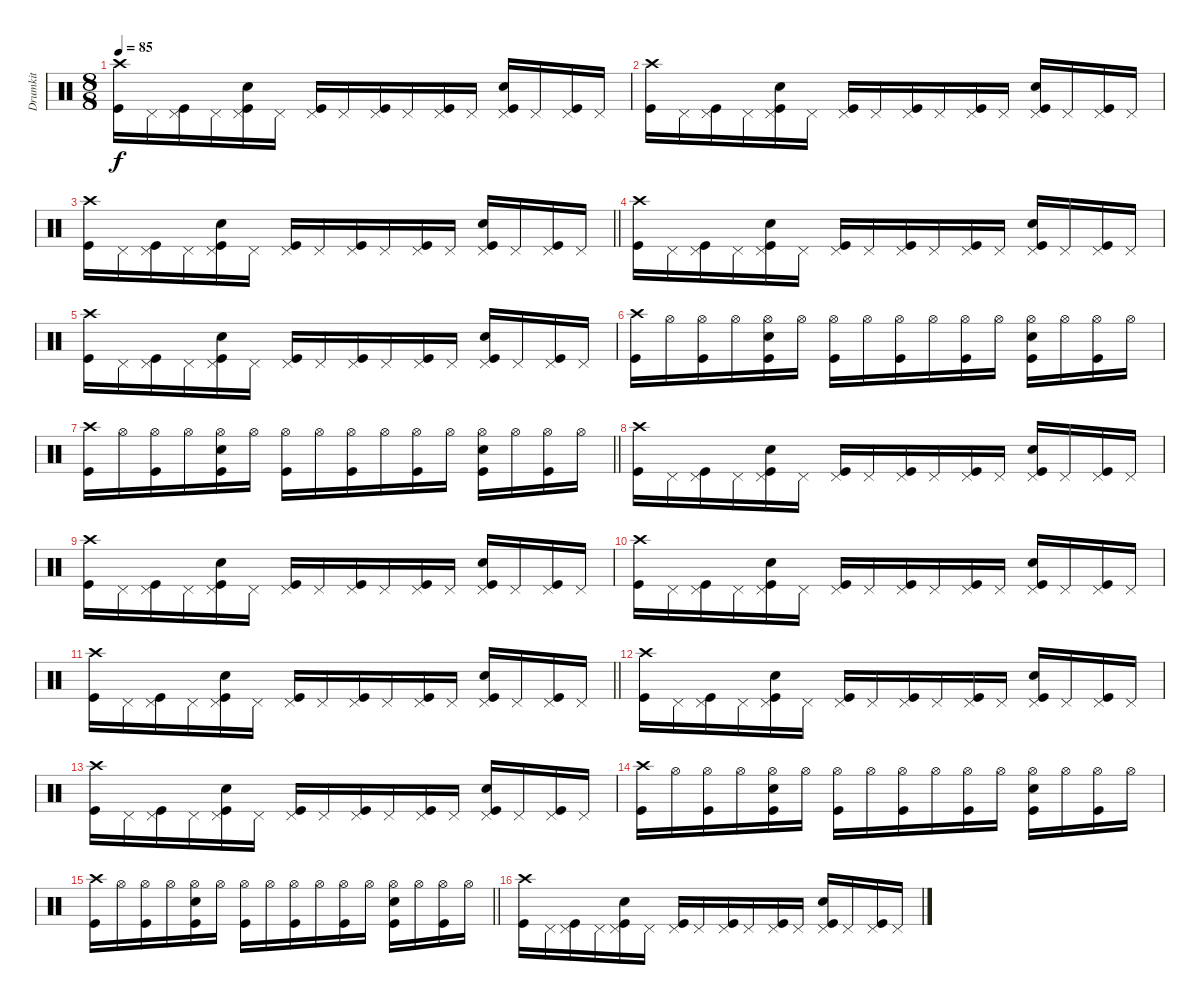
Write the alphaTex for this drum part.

\track ("Drumkit" "Drumkit") {instrument percussion}
\staff {score}
\articulation defaults
\ts (8 8)
\tempo 85
\clef neutral
\ks c
("Kick (hit)" "Crash high (hit)").16{dy f} "Pedal Hi-Hat (hit)".16 ("Kick (hit)" "Pedal Hi-Hat (hit)").16 "Pedal Hi-Hat (hit)".16 ("Kick (hit)" "Snare (hit) 2" "Pedal Hi-Hat (hit)").16 "Pedal Hi-Hat (hit)".16 ("Kick (hit)" "Pedal Hi-Hat (hit)").16 "Pedal Hi-Hat (hit)".16 ("Kick (hit)" "Pedal Hi-Hat (hit)").16 "Pedal Hi-Hat (hit)".16 ("Kick (hit)" "Pedal Hi-Hat (hit)").16 "Pedal Hi-Hat (hit)".16 ("Kick (hit)" "Snare (hit) 2" "Pedal Hi-Hat (hit)").16 "Pedal Hi-Hat (hit)".16 ("Kick (hit)" "Pedal Hi-Hat (hit)").16 "Pedal Hi-Hat (hit)".16 |
("Kick (hit)" "Crash high (hit)").16 "Pedal Hi-Hat (hit)".16 ("Kick (hit)" "Pedal Hi-Hat (hit)").16 "Pedal Hi-Hat (hit)".16 ("Kick (hit)" "Snare (hit) 2" "Pedal Hi-Hat (hit)").16 "Pedal Hi-Hat (hit)".16 ("Kick (hit)" "Pedal Hi-Hat (hit)").16 "Pedal Hi-Hat (hit)".16 ("Kick (hit)" "Pedal Hi-Hat (hit)").16 "Pedal Hi-Hat (hit)".16 ("Kick (hit)" "Pedal Hi-Hat (hit)").16 "Pedal Hi-Hat (hit)".16 ("Kick (hit)" "Snare (hit) 2" "Pedal Hi-Hat (hit)").16 "Pedal Hi-Hat (hit)".16 ("Kick (hit)" "Pedal Hi-Hat (hit)").16 "Pedal Hi-Hat (hit)".16 |
\barLineRight lightlight
("Kick (hit)" "Crash high (hit)").16 "Pedal Hi-Hat (hit)".16 ("Kick (hit)" "Pedal Hi-Hat (hit)").16 "Pedal Hi-Hat (hit)".16 ("Kick (hit)" "Snare (hit) 2" "Pedal Hi-Hat (hit)").16 "Pedal Hi-Hat (hit)".16 ("Kick (hit)" "Pedal Hi-Hat (hit)").16 "Pedal Hi-Hat (hit)".16 ("Kick (hit)" "Pedal Hi-Hat (hit)").16 "Pedal Hi-Hat (hit)".16 ("Kick (hit)" "Pedal Hi-Hat (hit)").16 "Pedal Hi-Hat (hit)".16 ("Kick (hit)" "Snare (hit) 2" "Pedal Hi-Hat (hit)").16 "Pedal Hi-Hat (hit)".16 ("Kick (hit)" "Pedal Hi-Hat (hit)").16 "Pedal Hi-Hat (hit)".16 |
("Kick (hit)" "Crash high (hit)").16 "Pedal Hi-Hat (hit)".16 ("Kick (hit)" "Pedal Hi-Hat (hit)").16 "Pedal Hi-Hat (hit)".16 ("Kick (hit)" "Snare (hit) 2" "Pedal Hi-Hat (hit)").16 "Pedal Hi-Hat (hit)".16 ("Kick (hit)" "Pedal Hi-Hat (hit)").16 "Pedal Hi-Hat (hit)".16 ("Kick (hit)" "Pedal Hi-Hat (hit)").16 "Pedal Hi-Hat (hit)".16 ("Kick (hit)" "Pedal Hi-Hat (hit)").16 "Pedal Hi-Hat (hit)".16 ("Kick (hit)" "Snare (hit) 2" "Pedal Hi-Hat (hit)").16 "Pedal Hi-Hat (hit)".16 ("Kick (hit)" "Pedal Hi-Hat (hit)").16 "Pedal Hi-Hat (hit)".16 |
("Kick (hit)" "Crash high (hit)").16 "Pedal Hi-Hat (hit)".16 ("Kick (hit)" "Pedal Hi-Hat (hit)").16 "Pedal Hi-Hat (hit)".16 ("Kick (hit)" "Snare (hit) 2" "Pedal Hi-Hat (hit)").16 "Pedal Hi-Hat (hit)".16 ("Kick (hit)" "Pedal Hi-Hat (hit)").16 "Pedal Hi-Hat (hit)".16 ("Kick (hit)" "Pedal Hi-Hat (hit)").16 "Pedal Hi-Hat (hit)".16 ("Kick (hit)" "Pedal Hi-Hat (hit)").16 "Pedal Hi-Hat (hit)".16 ("Kick (hit)" "Snare (hit) 2" "Pedal Hi-Hat (hit)").16 "Pedal Hi-Hat (hit)".16 ("Kick (hit)" "Pedal Hi-Hat (hit)").16 "Pedal Hi-Hat (hit)".16 |
("Kick (hit)" "Crash high (hit)").16 "Hi-Hat (open)".16 ("Kick (hit)" "Hi-Hat (open)").16 "Hi-Hat (open)".16 ("Kick (hit)" "Snare (hit) 2" "Hi-Hat (open)").16 "Hi-Hat (open)".16 ("Kick (hit)" "Hi-Hat (open)").16 "Hi-Hat (open)".16 ("Kick (hit)" "Hi-Hat (open)").16 "Hi-Hat (open)".16 ("Kick (hit)" "Hi-Hat (open)").16 "Hi-Hat (open)".16 ("Kick (hit)" "Snare (hit) 2" "Hi-Hat (open)").16 "Hi-Hat (open)".16 ("Kick (hit)" "Hi-Hat (open)").16 "Hi-Hat (open)".16 |
\barLineRight lightlight
("Kick (hit)" "Crash high (hit)").16 "Hi-Hat (open)".16 ("Kick (hit)" "Hi-Hat (open)").16 "Hi-Hat (open)".16 ("Kick (hit)" "Snare (hit) 2" "Hi-Hat (open)").16 "Hi-Hat (open)".16 ("Kick (hit)" "Hi-Hat (open)").16 "Hi-Hat (open)".16 ("Kick (hit)" "Hi-Hat (open)").16 "Hi-Hat (open)".16 ("Kick (hit)" "Hi-Hat (open)").16 "Hi-Hat (open)".16 ("Kick (hit)" "Snare (hit) 2" "Hi-Hat (open)").16 "Hi-Hat (open)".16 ("Kick (hit)" "Hi-Hat (open)").16 "Hi-Hat (open)".16 |
("Kick (hit)" "Crash high (hit)").16 "Pedal Hi-Hat (hit)".16 ("Kick (hit)" "Pedal Hi-Hat (hit)").16 "Pedal Hi-Hat (hit)".16 ("Kick (hit)" "Snare (hit) 2" "Pedal Hi-Hat (hit)").16 "Pedal Hi-Hat (hit)".16 ("Kick (hit)" "Pedal Hi-Hat (hit)").16 "Pedal Hi-Hat (hit)".16 ("Kick (hit)" "Pedal Hi-Hat (hit)").16 "Pedal Hi-Hat (hit)".16 ("Kick (hit)" "Pedal Hi-Hat (hit)").16 "Pedal Hi-Hat (hit)".16 ("Kick (hit)" "Snare (hit) 2" "Pedal Hi-Hat (hit)").16 "Pedal Hi-Hat (hit)".16 ("Kick (hit)" "Pedal Hi-Hat (hit)").16 "Pedal Hi-Hat (hit)".16 |
("Kick (hit)" "Crash high (hit)").16 "Pedal Hi-Hat (hit)".16 ("Kick (hit)" "Pedal Hi-Hat (hit)").16 "Pedal Hi-Hat (hit)".16 ("Kick (hit)" "Snare (hit) 2" "Pedal Hi-Hat (hit)").16 "Pedal Hi-Hat (hit)".16 ("Kick (hit)" "Pedal Hi-Hat (hit)").16 "Pedal Hi-Hat (hit)".16 ("Kick (hit)" "Pedal Hi-Hat (hit)").16 "Pedal Hi-Hat (hit)".16 ("Kick (hit)" "Pedal Hi-Hat (hit)").16 "Pedal Hi-Hat (hit)".16 ("Kick (hit)" "Snare (hit) 2" "Pedal Hi-Hat (hit)").16 "Pedal Hi-Hat (hit)".16 ("Kick (hit)" "Pedal Hi-Hat (hit)").16 "Pedal Hi-Hat (hit)".16 |
("Kick (hit)" "Crash high (hit)").16 "Pedal Hi-Hat (hit)".16 ("Kick (hit)" "Pedal Hi-Hat (hit)").16 "Pedal Hi-Hat (hit)".16 ("Kick (hit)" "Snare (hit) 2" "Pedal Hi-Hat (hit)").16 "Pedal Hi-Hat (hit)".16 ("Kick (hit)" "Pedal Hi-Hat (hit)").16 "Pedal Hi-Hat (hit)".16 ("Kick (hit)" "Pedal Hi-Hat (hit)").16 "Pedal Hi-Hat (hit)".16 ("Kick (hit)" "Pedal Hi-Hat (hit)").16 "Pedal Hi-Hat (hit)".16 ("Kick (hit)" "Snare (hit) 2" "Pedal Hi-Hat (hit)").16 "Pedal Hi-Hat (hit)".16 ("Kick (hit)" "Pedal Hi-Hat (hit)").16 "Pedal Hi-Hat (hit)".16 |
\barLineRight lightlight
("Kick (hit)" "Crash high (hit)").16 "Pedal Hi-Hat (hit)".16 ("Kick (hit)" "Pedal Hi-Hat (hit)").16 "Pedal Hi-Hat (hit)".16 ("Kick (hit)" "Snare (hit) 2" "Pedal Hi-Hat (hit)").16 "Pedal Hi-Hat (hit)".16 ("Kick (hit)" "Pedal Hi-Hat (hit)").16 "Pedal Hi-Hat (hit)".16 ("Kick (hit)" "Pedal Hi-Hat (hit)").16 "Pedal Hi-Hat (hit)".16 ("Kick (hit)" "Pedal Hi-Hat (hit)").16 "Pedal Hi-Hat (hit)".16 ("Kick (hit)" "Snare (hit) 2" "Pedal Hi-Hat (hit)").16 "Pedal Hi-Hat (hit)".16 ("Kick (hit)" "Pedal Hi-Hat (hit)").16 "Pedal Hi-Hat (hit)".16 |
("Kick (hit)" "Crash high (hit)").16 "Pedal Hi-Hat (hit)".16 ("Kick (hit)" "Pedal Hi-Hat (hit)").16 "Pedal Hi-Hat (hit)".16 ("Kick (hit)" "Snare (hit) 2" "Pedal Hi-Hat (hit)").16 "Pedal Hi-Hat (hit)".16 ("Kick (hit)" "Pedal Hi-Hat (hit)").16 "Pedal Hi-Hat (hit)".16 ("Kick (hit)" "Pedal Hi-Hat (hit)").16 "Pedal Hi-Hat (hit)".16 ("Kick (hit)" "Pedal Hi-Hat (hit)").16 "Pedal Hi-Hat (hit)".16 ("Kick (hit)" "Snare (hit) 2" "Pedal Hi-Hat (hit)").16 "Pedal Hi-Hat (hit)".16 ("Kick (hit)" "Pedal Hi-Hat (hit)").16 "Pedal Hi-Hat (hit)".16 |
("Kick (hit)" "Crash high (hit)").16 "Pedal Hi-Hat (hit)".16 ("Kick (hit)" "Pedal Hi-Hat (hit)").16 "Pedal Hi-Hat (hit)".16 ("Kick (hit)" "Snare (hit) 2" "Pedal Hi-Hat (hit)").16 "Pedal Hi-Hat (hit)".16 ("Kick (hit)" "Pedal Hi-Hat (hit)").16 "Pedal Hi-Hat (hit)".16 ("Kick (hit)" "Pedal Hi-Hat (hit)").16 "Pedal Hi-Hat (hit)".16 ("Kick (hit)" "Pedal Hi-Hat (hit)").16 "Pedal Hi-Hat (hit)".16 ("Kick (hit)" "Snare (hit) 2" "Pedal Hi-Hat (hit)").16 "Pedal Hi-Hat (hit)".16 ("Kick (hit)" "Pedal Hi-Hat (hit)").16 "Pedal Hi-Hat (hit)".16 |
("Kick (hit)" "Crash high (hit)").16 "Hi-Hat (open)".16 ("Kick (hit)" "Hi-Hat (open)").16 "Hi-Hat (open)".16 ("Kick (hit)" "Snare (hit) 2" "Hi-Hat (open)").16 "Hi-Hat (open)".16 ("Kick (hit)" "Hi-Hat (open)").16 "Hi-Hat (open)".16 ("Kick (hit)" "Hi-Hat (open)").16 "Hi-Hat (open)".16 ("Kick (hit)" "Hi-Hat (open)").16 "Hi-Hat (open)".16 ("Kick (hit)" "Snare (hit) 2" "Hi-Hat (open)").16 "Hi-Hat (open)".16 ("Kick (hit)" "Hi-Hat (open)").16 "Hi-Hat (open)".16 |
\barLineRight lightlight
("Kick (hit)" "Crash high (hit)").16 "Hi-Hat (open)".16 ("Kick (hit)" "Hi-Hat (open)").16 "Hi-Hat (open)".16 ("Kick (hit)" "Snare (hit) 2" "Hi-Hat (open)").16 "Hi-Hat (open)".16 ("Kick (hit)" "Hi-Hat (open)").16 "Hi-Hat (open)".16 ("Kick (hit)" "Hi-Hat (open)").16 "Hi-Hat (open)".16 ("Kick (hit)" "Hi-Hat (open)").16 "Hi-Hat (open)".16 ("Kick (hit)" "Snare (hit) 2" "Hi-Hat (open)").16 "Hi-Hat (open)".16 ("Kick (hit)" "Hi-Hat (open)").16 "Hi-Hat (open)".16 |
("Kick (hit)" "Crash high (hit)").16 "Pedal Hi-Hat (hit)".16 ("Kick (hit)" "Pedal Hi-Hat (hit)").16 "Pedal Hi-Hat (hit)".16 ("Kick (hit)" "Snare (hit) 2" "Pedal Hi-Hat (hit)").16 "Pedal Hi-Hat (hit)".16 ("Kick (hit)" "Pedal Hi-Hat (hit)").16 "Pedal Hi-Hat (hit)".16 ("Kick (hit)" "Pedal Hi-Hat (hit)").16 "Pedal Hi-Hat (hit)".16 ("Kick (hit)" "Pedal Hi-Hat (hit)").16 "Pedal Hi-Hat (hit)".16 ("Kick (hit)" "Snare (hit) 2" "Pedal Hi-Hat (hit)").16 "Pedal Hi-Hat (hit)".16 ("Kick (hit)" "Pedal Hi-Hat (hit)").16 "Pedal Hi-Hat (hit)".16
